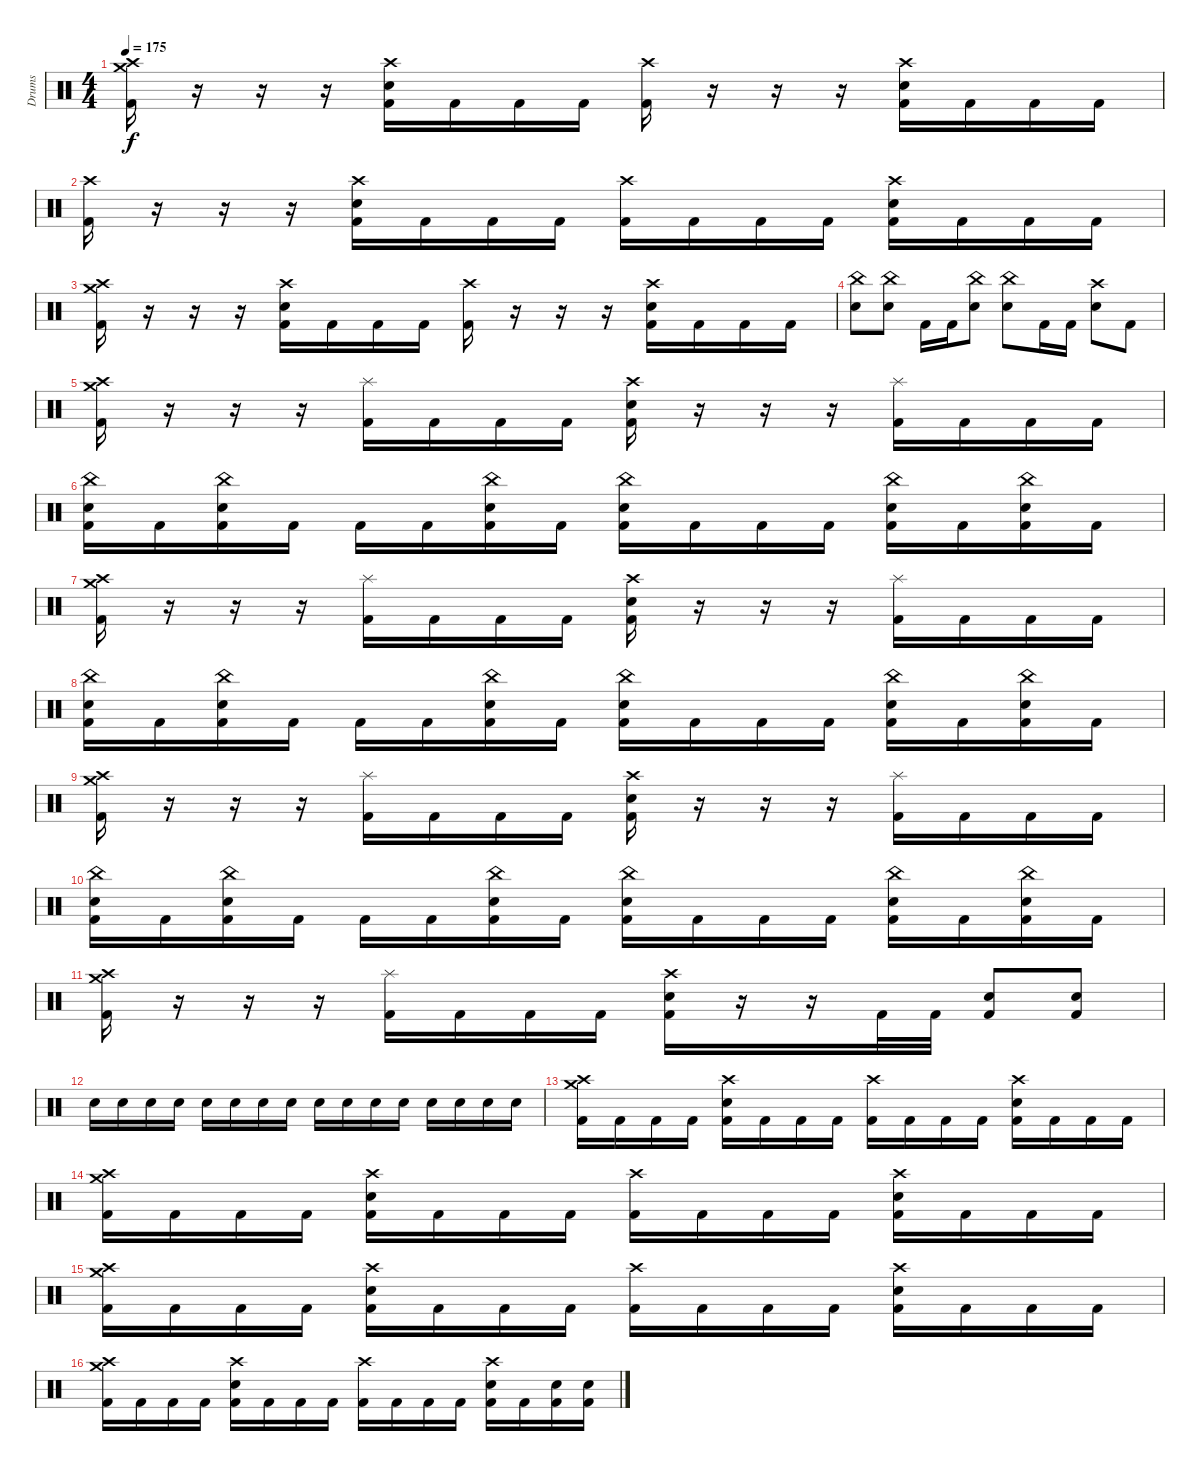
\track ("Drums" "Drums") {instrument percussion}
\staff {score}
\articulation defaults
\ts (4 4)
\tempo 175
\clef neutral
\ks c
("Crash medium (hit)" "Crash high (hit)" "Kick (hit) 2").16{dy f} r.16 r.16 r.16 ("Crash high (hit)" "Snare (hit) 2" "Kick (hit) 2").16 "Kick (hit) 2".16 "Kick (hit) 2".16 "Kick (hit) 2".16 ("Crash high (hit)" "Kick (hit) 2").16 r.16 r.16 r.16 ("Crash high (hit)" "Snare (hit) 2" "Kick (hit) 2").16 "Kick (hit) 2".16 "Kick (hit) 2".16 "Kick (hit) 2".16 |
("Crash high (hit)" "Kick (hit) 2").16 r.16 r.16 r.16 ("Crash high (hit)" "Snare (hit) 2" "Kick (hit) 2").16 "Kick (hit) 2".16 "Kick (hit) 2".16 "Kick (hit) 2".16 ("Crash high (hit)" "Kick (hit) 2").16 "Kick (hit) 2".16 "Kick (hit) 2".16 "Kick (hit) 2".16 ("Crash high (hit)" "Snare (hit) 2" "Kick (hit) 2").16 "Kick (hit) 2".16 "Kick (hit) 2".16 "Kick (hit) 2".16 |
("Crash medium (hit)" "Crash high (hit)" "Kick (hit) 2").16 r.16 r.16 r.16 ("Crash high (hit)" "Snare (hit) 2" "Kick (hit) 2").16 "Kick (hit) 2".16 "Kick (hit) 2".16 "Kick (hit) 2".16 ("Crash high (hit)" "Kick (hit) 2").16 r.16 r.16 r.16 ("Crash high (hit)" "Snare (hit) 2" "Kick (hit) 2").16 "Kick (hit) 2".16 "Kick (hit) 2".16 "Kick (hit) 2".16 |
("China (hit)" "Snare (hit) 2").8 ("China (hit)" "Snare (hit) 2").8 "Kick (hit) 2".16 "Kick (hit) 2".16 ("China (hit)" "Snare (hit) 2").8 ("China (hit)" "Snare (hit) 2").8 "Kick (hit) 2".16 "Kick (hit) 2".16 ("Crash high (hit)" "Snare (hit) 2").8 "Kick (hit) 2".8 |
("Crash medium (hit)" "Crash high (hit)" "Kick (hit) 2").16 r.16 r.16 r.16 ("Splash (hit)" "Kick (hit) 2").16 "Kick (hit) 2".16 "Kick (hit) 2".16 "Kick (hit) 2".16 ("Crash high (hit)" "Snare (hit) 2" "Kick (hit) 2").16 r.16 r.16 r.16 ("Splash (hit)" "Kick (hit) 2").16 "Kick (hit) 2".16 "Kick (hit) 2".16 "Kick (hit) 2".16 |
("China (hit)" "Snare (hit) 2" "Kick (hit) 2").16 "Kick (hit) 2".16 ("China (hit)" "Snare (hit) 2" "Kick (hit) 2").16 "Kick (hit) 2".16 "Kick (hit) 2".16 "Kick (hit) 2".16 ("China (hit)" "Snare (hit) 2" "Kick (hit) 2").16 "Kick (hit) 2".16 ("China (hit)" "Snare (hit) 2" "Kick (hit) 2").16 "Kick (hit) 2".16 "Kick (hit) 2".16 "Kick (hit) 2".16 ("China (hit)" "Snare (hit) 2" "Kick (hit) 2").16 "Kick (hit) 2".16 ("China (hit)" "Snare (hit) 2" "Kick (hit) 2").16 "Kick (hit) 2".16 |
("Crash medium (hit)" "Crash high (hit)" "Kick (hit) 2").16 r.16 r.16 r.16 ("Splash (hit)" "Kick (hit) 2").16 "Kick (hit) 2".16 "Kick (hit) 2".16 "Kick (hit) 2".16 ("Crash high (hit)" "Snare (hit) 2" "Kick (hit) 2").16 r.16 r.16 r.16 ("Splash (hit)" "Kick (hit) 2").16 "Kick (hit) 2".16 "Kick (hit) 2".16 "Kick (hit) 2".16 |
("China (hit)" "Snare (hit) 2" "Kick (hit) 2").16 "Kick (hit) 2".16 ("China (hit)" "Snare (hit) 2" "Kick (hit) 2").16 "Kick (hit) 2".16 "Kick (hit) 2".16 "Kick (hit) 2".16 ("China (hit)" "Snare (hit) 2" "Kick (hit) 2").16 "Kick (hit) 2".16 ("China (hit)" "Snare (hit) 2" "Kick (hit) 2").16 "Kick (hit) 2".16 "Kick (hit) 2".16 "Kick (hit) 2".16 ("China (hit)" "Snare (hit) 2" "Kick (hit) 2").16 "Kick (hit) 2".16 ("China (hit)" "Snare (hit) 2" "Kick (hit) 2").16 "Kick (hit) 2".16 |
("Crash medium (hit)" "Crash high (hit)" "Kick (hit) 2").16 r.16 r.16 r.16 ("Splash (hit)" "Kick (hit) 2").16 "Kick (hit) 2".16 "Kick (hit) 2".16 "Kick (hit) 2".16 ("Crash high (hit)" "Snare (hit) 2" "Kick (hit) 2").16 r.16 r.16 r.16 ("Splash (hit)" "Kick (hit) 2").16 "Kick (hit) 2".16 "Kick (hit) 2".16 "Kick (hit) 2".16 |
("China (hit)" "Snare (hit) 2" "Kick (hit) 2").16 "Kick (hit) 2".16 ("China (hit)" "Snare (hit) 2" "Kick (hit) 2").16 "Kick (hit) 2".16 "Kick (hit) 2".16 "Kick (hit) 2".16 ("China (hit)" "Snare (hit) 2" "Kick (hit) 2").16 "Kick (hit) 2".16 ("China (hit)" "Snare (hit) 2" "Kick (hit) 2").16 "Kick (hit) 2".16 "Kick (hit) 2".16 "Kick (hit) 2".16 ("China (hit)" "Snare (hit) 2" "Kick (hit) 2").16 "Kick (hit) 2".16 ("China (hit)" "Snare (hit) 2" "Kick (hit) 2").16 "Kick (hit) 2".16 |
("Crash medium (hit)" "Crash high (hit)" "Kick (hit) 2").16 r.16 r.16 r.16 ("Splash (hit)" "Kick (hit) 2").16 "Kick (hit) 2".16 "Kick (hit) 2".16 "Kick (hit) 2".16 ("Crash high (hit)" "Snare (hit) 2" "Kick (hit) 2").16 r.16 r.16 "Kick (hit) 2".32 "Kick (hit) 2".32 ("Snare (hit) 2" "Kick (hit) 2").8 ("Snare (hit) 2" "Kick (hit) 2").8 |
"Snare (hit) 2".16 "Snare (hit) 2".16 "Snare (hit) 2".16 "Snare (hit) 2".16 "Snare (hit) 2".16 "Snare (hit) 2".16 "Snare (hit) 2".16 "Snare (hit) 2".16 "Snare (hit) 2".16 "Snare (hit) 2".16 "Snare (hit) 2".16 "Snare (hit) 2".16 "Snare (hit) 2".16 "Snare (hit) 2".16 "Snare (hit) 2".16 "Snare (hit) 2".16 |
("Crash medium (hit)" "Crash high (hit)" "Kick (hit) 2").16 "Kick (hit) 2".16 "Kick (hit) 2".16 "Kick (hit) 2".16 ("Crash high (hit)" "Snare (hit) 2" "Kick (hit) 2").16 "Kick (hit) 2".16 "Kick (hit) 2".16 "Kick (hit) 2".16 ("Crash high (hit)" "Kick (hit) 2").16 "Kick (hit) 2".16 "Kick (hit) 2".16 "Kick (hit) 2".16 ("Crash high (hit)" "Snare (hit) 2" "Kick (hit) 2").16 "Kick (hit) 2".16 "Kick (hit) 2".16 "Kick (hit) 2".16 |
("Crash medium (hit)" "Crash high (hit)" "Kick (hit) 2").16 "Kick (hit) 2".16 "Kick (hit) 2".16 "Kick (hit) 2".16 ("Crash high (hit)" "Snare (hit) 2" "Kick (hit) 2").16 "Kick (hit) 2".16 "Kick (hit) 2".16 "Kick (hit) 2".16 ("Crash high (hit)" "Kick (hit) 2").16 "Kick (hit) 2".16 "Kick (hit) 2".16 "Kick (hit) 2".16 ("Crash high (hit)" "Snare (hit) 2" "Kick (hit) 2").16 "Kick (hit) 2".16 "Kick (hit) 2".16 "Kick (hit) 2".16 |
("Crash medium (hit)" "Crash high (hit)" "Kick (hit) 2").16 "Kick (hit) 2".16 "Kick (hit) 2".16 "Kick (hit) 2".16 ("Crash high (hit)" "Snare (hit) 2" "Kick (hit) 2").16 "Kick (hit) 2".16 "Kick (hit) 2".16 "Kick (hit) 2".16 ("Crash high (hit)" "Kick (hit) 2").16 "Kick (hit) 2".16 "Kick (hit) 2".16 "Kick (hit) 2".16 ("Crash high (hit)" "Snare (hit) 2" "Kick (hit) 2").16 "Kick (hit) 2".16 "Kick (hit) 2".16 "Kick (hit) 2".16 |
("Crash medium (hit)" "Crash high (hit)" "Kick (hit) 2").16 "Kick (hit) 2".16 "Kick (hit) 2".16 "Kick (hit) 2".16 ("Crash high (hit)" "Snare (hit) 2" "Kick (hit) 2").16 "Kick (hit) 2".16 "Kick (hit) 2".16 "Kick (hit) 2".16 ("Crash high (hit)" "Kick (hit) 2").16 "Kick (hit) 2".16 "Kick (hit) 2".16 "Kick (hit) 2".16 ("Crash high (hit)" "Snare (hit) 2" "Kick (hit) 2").16 "Kick (hit) 2".16 ("Snare (hit) 2" "Kick (hit) 2").16 ("Snare (hit) 2" "Kick (hit) 2").16
